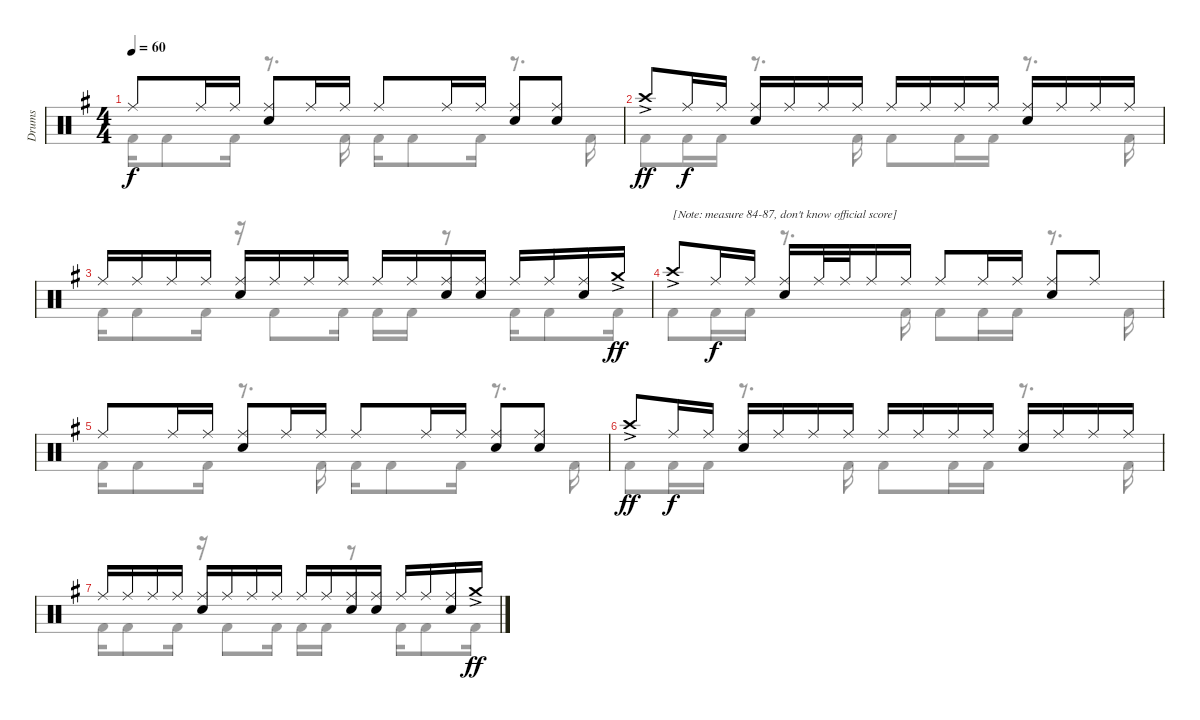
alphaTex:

\track ("Drums" "Drums") {instrument percussion}
\staff {score}
\articulation defaults
\voice
\ts (4 4)
\tempo 60
\clef neutral
\ks g "Ride (middle)".8{dy f} "Ride (middle)".16 "Ride (middle)".16
("Ride (middle)" "Snare (hit) 2").8 "Ride (middle)".16 "Ride (middle)".16 "Ride (middle)".8 "Ride (middle)".16 "Ride (middle)".16 ("Ride (middle)" "Snare (hit) 2").8 ("Ride (middle)" "Snare (hit) 2").8 |
"Crash high (hit)"{ac}.8{dy ff} "Ride (middle)".16{dy f} "Ride (middle)".16 ("Ride (middle)" "Snare (hit) 2").16 "Ride (middle)".16 "Ride (middle)".16 "Ride (middle)".16 "Ride (middle)".16 "Ride (middle)".16 "Ride (middle)".16 "Ride (middle)".16 ("Ride (middle)" "Snare (hit) 2").16 "Ride (middle)".16 "Ride (middle)".16 "Ride (middle)".16 |
"Ride (middle)".16 "Ride (middle)".16 "Ride (middle)".16 "Ride (middle)".16 ("Ride (middle)" "Snare (hit) 2").16 "Ride (middle)".16 "Ride (middle)".16 "Ride (middle)".16 "Ride (middle)".16 "Ride (middle)".16 ("Ride (middle)" "Snare (hit) 2").16 ("Ride (middle)" "Snare (hit) 2").16 "Ride (middle)".16 "Ride (middle)".16 ("Ride (middle)" "Snare (hit) 2").16 "Crash medium (hit)"{ac}.16{dy ff} |
"Crash high (hit)"{ac}.8{txt "[Note: measure 84-87, don't know official score]"} "Ride (middle)".16{dy f} "Ride (middle)".16 ("Ride (middle)" "Snare (hit) 2").16 "Ride (middle)".32 "Ride (middle)".32 "Ride (middle)".16 "Ride (middle)".16 "Ride (middle)".8 "Ride (middle)".16 "Ride (middle)".16 ("Ride (middle)" "Snare (hit) 2").8 "Ride (middle)".8 |
"Ride (middle)".8 "Ride (middle)".16 "Ride (middle)".16 ("Ride (middle)" "Snare (hit) 2").8 "Ride (middle)".16 "Ride (middle)".16 "Ride (middle)".8 "Ride (middle)".16 "Ride (middle)".16 ("Ride (middle)" "Snare (hit) 2").8 ("Ride (middle)" "Snare (hit) 2").8 |
"Crash high (hit)"{ac}.8{dy ff} "Ride (middle)".16{dy f} "Ride (middle)".16 ("Ride (middle)" "Snare (hit) 2").16 "Ride (middle)".16 "Ride (middle)".16 "Ride (middle)".16 "Ride (middle)".16 "Ride (middle)".16 "Ride (middle)".16 "Ride (middle)".16 ("Ride (middle)" "Snare (hit) 2").16 "Ride (middle)".16 "Ride (middle)".16 "Ride (middle)".16 |
"Ride (middle)".16 "Ride (middle)".16 "Ride (middle)".16 "Ride (middle)".16 ("Ride (middle)" "Snare (hit) 2").16 "Ride (middle)".16 "Ride (middle)".16 "Ride (middle)".16 "Ride (middle)".16 "Ride (middle)".16 ("Ride (middle)" "Snare (hit) 2").16 ("Ride (middle)" "Snare (hit) 2").16 "Ride (middle)".16 "Ride (middle)".16 ("Ride (middle)" "Snare (hit) 2").16 "Crash medium (hit)"{ac}.16{dy ff}
\voice
\clef neutral
\ottava regular
\simile none
\ks g "Kick (hit) 2".16{dy f} "Kick (hit) 2".8 "Kick (hit) 2".16
r.8{d} "Kick (hit) 2".16 "Kick (hit) 2".16 "Kick (hit) 2".8 "Kick (hit) 2".16 r.8{d} "Kick (hit) 2".16 |
"Kick (hit) 2".8 "Kick (hit) 2".16 "Kick (hit) 2".16 r.8{d} "Kick (hit) 2".16 "Kick (hit) 2".8 "Kick (hit) 2".16 "Kick (hit) 2".16 r.8{d} "Kick (hit) 2".16 |
"Kick (hit) 2".16 "Kick (hit) 2".8 "Kick (hit) 2".16 r.16 "Kick (hit) 2".8 "Kick (hit) 2".16 "Kick (hit) 2".16 "Kick (hit) 2".16 r.8 "Kick (hit) 2".16 "Kick (hit) 2".8 "Kick (hit) 2".16 |
"Kick (hit) 2".8 "Kick (hit) 2".16 "Kick (hit) 2".16 r.8{d} "Kick (hit) 2".16 "Kick (hit) 2".8 "Kick (hit) 2".16 "Kick (hit) 2".16 r.8{d} "Kick (hit) 2".16 |
"Kick (hit) 2".16 "Kick (hit) 2".8 "Kick (hit) 2".16 r.8{d} "Kick (hit) 2".16 "Kick (hit) 2".16 "Kick (hit) 2".8 "Kick (hit) 2".16 r.8{d} "Kick (hit) 2".16 |
"Kick (hit) 2".8 "Kick (hit) 2".16 "Kick (hit) 2".16 r.8{d} "Kick (hit) 2".16 "Kick (hit) 2".8 "Kick (hit) 2".16 "Kick (hit) 2".16 r.8{d} "Kick (hit) 2".16 |
"Kick (hit) 2".16 "Kick (hit) 2".8 "Kick (hit) 2".16 r.16 "Kick (hit) 2".8 "Kick (hit) 2".16 "Kick (hit) 2".16 "Kick (hit) 2".16 r.8 "Kick (hit) 2".16 "Kick (hit) 2".8 "Kick (hit) 2".16
